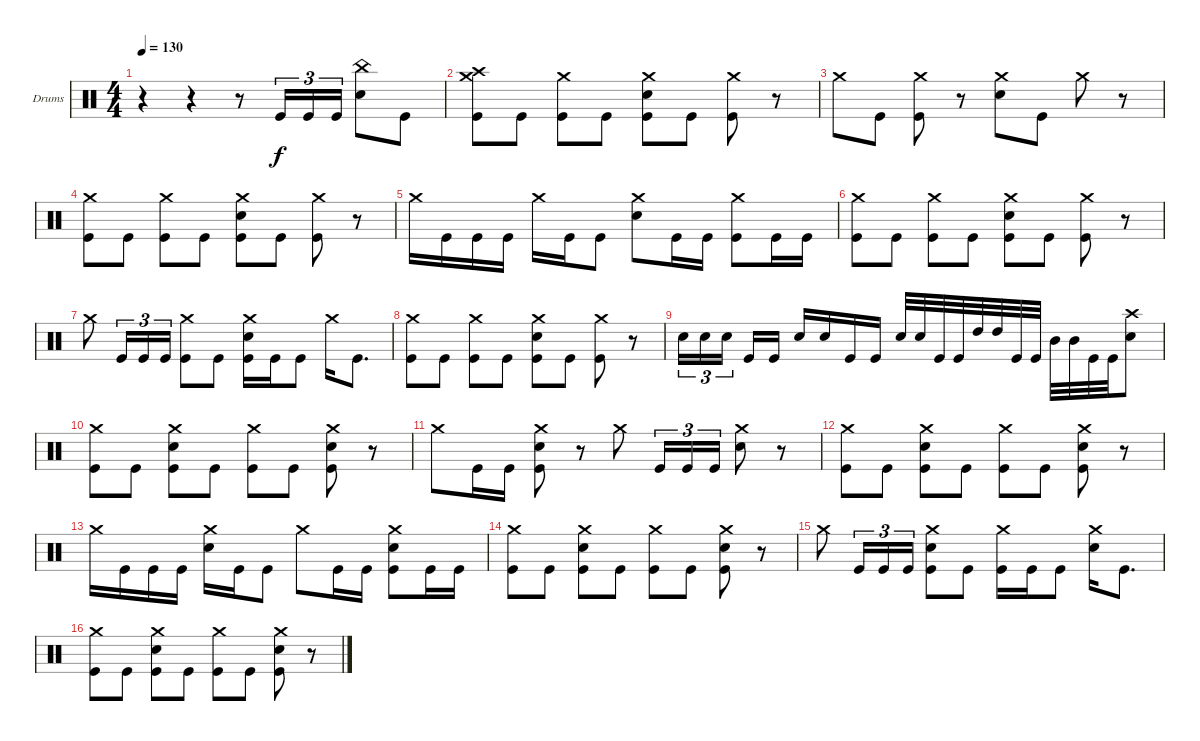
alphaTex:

\bracketExtendMode groupsimilarinstruments
\firstSystemTrackNameOrientation horizontal
\otherSystemsTrackNameOrientation horizontal
\track ("Boum Boum" "Drums") {instrument percussion}
\staff {score}
\articulation defaults
\ts (4 4)
\beaming (8 2 2 2 2)
\tempo 130
\clef neutral
\ks c
r.4{dy f} r.4 r.8 "Kick (hit)".16{tu (3 2)} "Kick (hit)".16{tu (3 2)} "Kick (hit)".16{tu (3 2)} ("Snare (hit) 2" "China (hit)").8 "Kick (hit)".8 |
("Kick (hit)" "Crash medium (hit)" "Crash high (hit)").8 "Kick (hit)".8 ("Kick (hit)" "Crash medium (hit)").8 "Kick (hit)".8 ("Kick (hit)" "Crash medium (hit)" "Snare (hit) 2").8 "Kick (hit)".8 ("Kick (hit)" "Crash medium (hit)").8 r.8 |
"Crash medium (hit)".8 "Kick (hit)".8 ("Crash medium (hit)" "Kick (hit)").8 r.8 ("Crash medium (hit)" "Snare (hit) 2").8 "Kick (hit)".8 "Crash medium (hit)".8 r.8 |
("Kick (hit)" "Crash medium (hit)").8 "Kick (hit)".8 ("Kick (hit)" "Crash medium (hit)").8 "Kick (hit)".8 ("Kick (hit)" "Snare (hit) 2" "Crash medium (hit)").8 "Kick (hit)".8 ("Kick (hit)" "Crash medium (hit)").8 r.8 |
"Crash medium (hit)".16 "Kick (hit)".16 "Kick (hit)".16 "Kick (hit)".16 "Crash medium (hit)".16 "Kick (hit)".16 "Kick (hit)".8 ("Snare (hit) 2" "Crash medium (hit)").8 "Kick (hit)".16 "Kick (hit)".16 ("Kick (hit)" "Crash medium (hit)").8 "Kick (hit)".16 "Kick (hit)".16 |
("Kick (hit)" "Crash medium (hit)").8 "Kick (hit)".8 ("Kick (hit)" "Crash medium (hit)").8 "Kick (hit)".8 ("Kick (hit)" "Crash medium (hit)" "Snare (hit) 2").8 "Kick (hit)".8 ("Kick (hit)" "Crash medium (hit)").8 r.8 |
"Crash medium (hit)".8 "Kick (hit)".16{tu (3 2)} "Kick (hit)".16{tu (3 2)} "Kick (hit)".16{tu (3 2)} ("Kick (hit)" "Crash medium (hit)").8 "Kick (hit)".8 ("Crash medium (hit)" "Snare (hit) 2" "Kick (hit)").16 "Kick (hit)".16 "Kick (hit)".8 "Crash medium (hit)".16 "Kick (hit)".8{d} |
("Crash medium (hit)" "Kick (hit)").8 "Kick (hit)".8 ("Kick (hit)" "Crash medium (hit)").8 "Kick (hit)".8 ("Kick (hit)" "Snare (hit) 2" "Crash medium (hit)").8 "Kick (hit)".8 ("Kick (hit)" "Crash medium (hit)").8 r.8 |
"Snare (hit) 2".16{tu (3 2)} "Snare (hit) 2".16{tu (3 2)} "Snare (hit) 2".16{tu (3 2)} "Kick (hit)".16 "Kick (hit)".16 "Snare (hit) 2".16 "Snare (hit) 2".16 "Kick (hit)".16 "Kick (hit)".16 "Snare (hit) 2".32 "Snare (hit) 2".32 "Kick (hit)".32 "Kick (hit)".32 "High Tom (hit)".32 "High Tom (hit)".32 "Kick (hit)".32 "Kick (hit)".32 "Mid Tom (hit)".32 "Mid Tom (hit)".32 "Kick (hit)".32 "Kick (hit)".32 ("Snare (hit) 2" "Crash high (hit)").8 |
("Kick (hit)" "Crash medium (hit)").8 "Kick (hit)".8 ("Kick (hit)" "Crash medium (hit)" "Snare (hit) 2").8 "Kick (hit)".8 ("Kick (hit)" "Crash medium (hit)").8 "Kick (hit)".8 ("Kick (hit)" "Crash medium (hit)" "Snare (hit) 2").8 r.8 |
"Crash medium (hit)".8 "Kick (hit)".16 "Kick (hit)".16 ("Crash medium (hit)" "Kick (hit)" "Snare (hit) 2").8 r.8 "Crash medium (hit)".8 "Kick (hit)".16{tu (3 2)} "Kick (hit)".16{tu (3 2)} "Kick (hit)".16{tu (3 2)} ("Crash medium (hit)" "Snare (hit) 2").8 r.8 |
("Kick (hit)" "Crash medium (hit)").8 "Kick (hit)".8 ("Kick (hit)" "Crash medium (hit)" "Snare (hit) 2").8 "Kick (hit)".8 ("Kick (hit)" "Crash medium (hit)").8 "Kick (hit)".8 ("Kick (hit)" "Crash medium (hit)" "Snare (hit) 2").8 r.8 |
"Crash medium (hit)".16 "Kick (hit)".16 "Kick (hit)".16 "Kick (hit)".16 ("Crash medium (hit)" "Snare (hit) 2").16 "Kick (hit)".16 "Kick (hit)".8 "Crash medium (hit)".8 "Kick (hit)".16 "Kick (hit)".16 ("Kick (hit)" "Crash medium (hit)" "Snare (hit) 2").8 "Kick (hit)".16 "Kick (hit)".16 |
("Kick (hit)" "Crash medium (hit)").8 "Kick (hit)".8 ("Kick (hit)" "Crash medium (hit)" "Snare (hit) 2").8 "Kick (hit)".8 ("Kick (hit)" "Crash medium (hit)").8 "Kick (hit)".8 ("Kick (hit)" "Crash medium (hit)" "Snare (hit) 2").8 r.8 |
"Crash medium (hit)".8 "Kick (hit)".16{tu (3 2)} "Kick (hit)".16{tu (3 2)} "Kick (hit)".16{tu (3 2)} ("Kick (hit)" "Crash medium (hit)" "Snare (hit) 2").8 "Kick (hit)".8 ("Crash medium (hit)" "Kick (hit)").16 "Kick (hit)".16 "Kick (hit)".8 ("Crash medium (hit)" "Snare (hit) 2").16 "Kick (hit)".8{d} |
("Crash medium (hit)" "Kick (hit)").8 "Kick (hit)".8 ("Kick (hit)" "Crash medium (hit)" "Snare (hit) 2").8 "Kick (hit)".8 ("Kick (hit)" "Crash medium (hit)").8 "Kick (hit)".8 ("Kick (hit)" "Crash medium (hit)" "Snare (hit) 2").8 r.8
